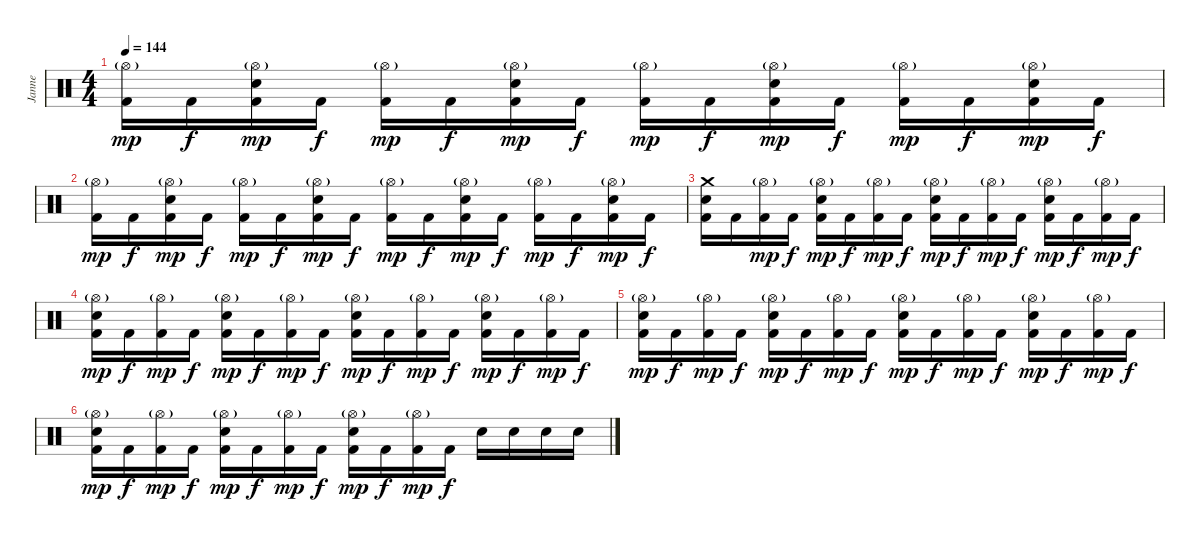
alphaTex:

\track ("Janne" "Janne") {instrument percussion}
\staff {score}
\articulation defaults
\ts (4 4)
\tempo 144
\clef neutral
\ks c
("Kick (hit) 2" "Hi-Hat (open)"{g}).16{dy mp} "Kick (hit) 2".16{dy f} ("Kick (hit) 2" "Snare (hit) 2" "Hi-Hat (open)"{g}).16{dy mp} "Kick (hit) 2".16{dy f} ("Kick (hit) 2" "Hi-Hat (open)"{g}).16{dy mp} "Kick (hit) 2".16{dy f} ("Kick (hit) 2" "Snare (hit) 2" "Hi-Hat (open)"{g}).16{dy mp} "Kick (hit) 2".16{dy f} ("Kick (hit) 2" "Hi-Hat (open)"{g}).16{dy mp} "Kick (hit) 2".16{dy f} ("Kick (hit) 2" "Snare (hit) 2" "Hi-Hat (open)"{g}).16{dy mp} "Kick (hit) 2".16{dy f} ("Kick (hit) 2" "Hi-Hat (open)"{g}).16{dy mp} "Kick (hit) 2".16{dy f} ("Kick (hit) 2" "Snare (hit) 2" "Hi-Hat (open)"{g}).16{dy mp} "Kick (hit) 2".16{dy f} |
("Kick (hit) 2" "Hi-Hat (open)"{g}).16{dy mp} "Kick (hit) 2".16{dy f} ("Kick (hit) 2" "Snare (hit) 2" "Hi-Hat (open)"{g}).16{dy mp} "Kick (hit) 2".16{dy f} ("Kick (hit) 2" "Hi-Hat (open)"{g}).16{dy mp} "Kick (hit) 2".16{dy f} ("Kick (hit) 2" "Snare (hit) 2" "Hi-Hat (open)"{g}).16{dy mp} "Kick (hit) 2".16{dy f} ("Kick (hit) 2" "Hi-Hat (open)"{g}).16{dy mp} "Kick (hit) 2".16{dy f} ("Kick (hit) 2" "Snare (hit) 2" "Hi-Hat (open)"{g}).16{dy mp} "Kick (hit) 2".16{dy f} ("Kick (hit) 2" "Hi-Hat (open)"{g}).16{dy mp} "Kick (hit) 2".16{dy f} ("Kick (hit) 2" "Snare (hit) 2" "Hi-Hat (open)"{g}).16{dy mp} "Kick (hit) 2".16{dy f} |
("Kick (hit) 2" "Snare (hit) 2" "Crash medium (hit)").16 "Kick (hit) 2".16 ("Kick (hit) 2" "Hi-Hat (open)"{g}).16{dy mp} "Kick (hit) 2".16{dy f} ("Kick (hit) 2" "Snare (hit) 2" "Hi-Hat (open)"{g}).16{dy mp} "Kick (hit) 2".16{dy f} ("Kick (hit) 2" "Hi-Hat (open)"{g}).16{dy mp} "Kick (hit) 2".16{dy f} ("Kick (hit) 2" "Snare (hit) 2" "Hi-Hat (open)"{g}).16{dy mp} "Kick (hit) 2".16{dy f} ("Kick (hit) 2" "Hi-Hat (open)"{g}).16{dy mp} "Kick (hit) 2".16{dy f} ("Kick (hit) 2" "Snare (hit) 2" "Hi-Hat (open)"{g}).16{dy mp} "Kick (hit) 2".16{dy f} ("Kick (hit) 2" "Hi-Hat (open)"{g}).16{dy mp} "Kick (hit) 2".16{dy f} |
("Kick (hit) 2" "Snare (hit) 2" "Hi-Hat (open)"{g}).16{dy mp} "Kick (hit) 2".16{dy f} ("Kick (hit) 2" "Hi-Hat (open)"{g}).16{dy mp} "Kick (hit) 2".16{dy f} ("Kick (hit) 2" "Snare (hit) 2" "Hi-Hat (open)"{g}).16{dy mp} "Kick (hit) 2".16{dy f} ("Kick (hit) 2" "Hi-Hat (open)"{g}).16{dy mp} "Kick (hit) 2".16{dy f} ("Kick (hit) 2" "Snare (hit) 2" "Hi-Hat (open)"{g}).16{dy mp} "Kick (hit) 2".16{dy f} ("Kick (hit) 2" "Hi-Hat (open)"{g}).16{dy mp} "Kick (hit) 2".16{dy f} ("Kick (hit) 2" "Snare (hit) 2" "Hi-Hat (open)"{g}).16{dy mp} "Kick (hit) 2".16{dy f} ("Kick (hit) 2" "Hi-Hat (open)"{g}).16{dy mp} "Kick (hit) 2".16{dy f} |
("Kick (hit) 2" "Snare (hit) 2" "Hi-Hat (open)"{g}).16{dy mp} "Kick (hit) 2".16{dy f} ("Kick (hit) 2" "Hi-Hat (open)"{g}).16{dy mp} "Kick (hit) 2".16{dy f} ("Kick (hit) 2" "Snare (hit) 2" "Hi-Hat (open)"{g}).16{dy mp} "Kick (hit) 2".16{dy f} ("Kick (hit) 2" "Hi-Hat (open)"{g}).16{dy mp} "Kick (hit) 2".16{dy f} ("Kick (hit) 2" "Snare (hit) 2" "Hi-Hat (open)"{g}).16{dy mp} "Kick (hit) 2".16{dy f} ("Kick (hit) 2" "Hi-Hat (open)"{g}).16{dy mp} "Kick (hit) 2".16{dy f} ("Kick (hit) 2" "Snare (hit) 2" "Hi-Hat (open)"{g}).16{dy mp} "Kick (hit) 2".16{dy f} ("Kick (hit) 2" "Hi-Hat (open)"{g}).16{dy mp} "Kick (hit) 2".16{dy f} |
("Kick (hit) 2" "Snare (hit) 2" "Hi-Hat (open)"{g}).16{dy mp} "Kick (hit) 2".16{dy f} ("Kick (hit) 2" "Hi-Hat (open)"{g}).16{dy mp} "Kick (hit) 2".16{dy f} ("Kick (hit) 2" "Snare (hit) 2" "Hi-Hat (open)"{g}).16{dy mp} "Kick (hit) 2".16{dy f} ("Kick (hit) 2" "Hi-Hat (open)"{g}).16{dy mp} "Kick (hit) 2".16{dy f} ("Kick (hit) 2" "Snare (hit) 2" "Hi-Hat (open)"{g}).16{dy mp} "Kick (hit) 2".16{dy f} ("Kick (hit) 2" "Hi-Hat (open)"{g}).16{dy mp} "Kick (hit) 2".16{dy f} "Snare (hit) 2".16 "Snare (hit) 2".16 "Snare (hit) 2".16 "Snare (hit) 2".16
